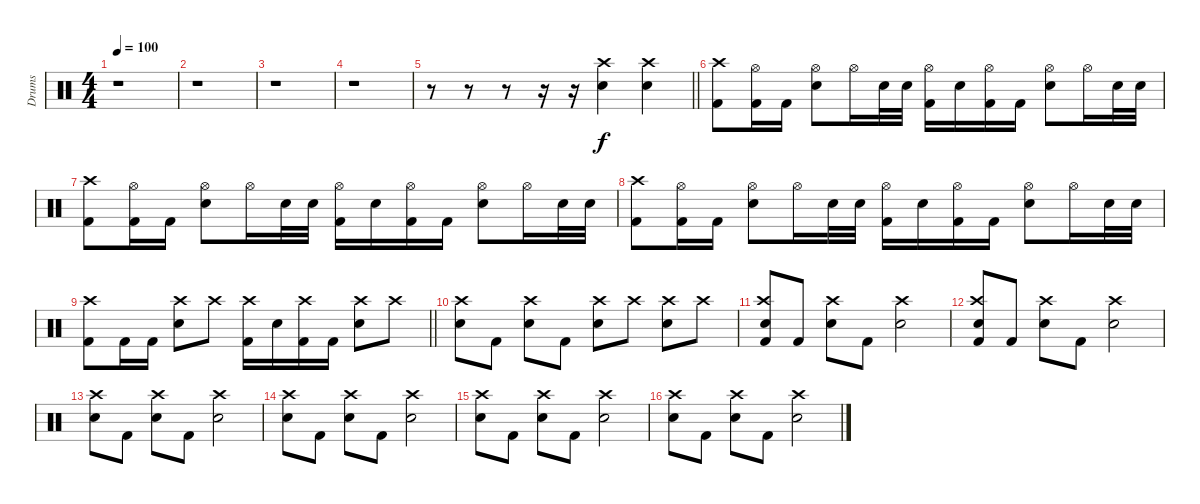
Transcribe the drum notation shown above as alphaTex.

\track ("Drums" "Drums") {instrument percussion}
\staff {score}
\articulation defaults
\ts (4 4)
\tempo 100
\clef neutral
\ks c
r.1{dy f} |
r.1 |
r.1 |
r.1 |
\barLineRight lightlight
r.8 r.8 r.8 r.16 r.16 ("Snare (hit) 2" "Crash high (hit)").4 ("Snare (hit) 2" "Crash high (hit)").4 |
("Kick (hit) 2" "Crash high (hit)").8 ("Kick (hit) 2" "Hi-Hat (open)").16 "Kick (hit) 2".16 ("Snare (hit) 2" "Hi-Hat (open)").8 "Hi-Hat (open)".16 "Snare (hit) 2".32 "Snare (hit) 2".32 ("Kick (hit) 2" "Hi-Hat (open)").16 "Snare (hit) 2".16 ("Kick (hit) 2" "Hi-Hat (open)").16 "Kick (hit) 2".16 ("Snare (hit) 2" "Hi-Hat (open)").8 "Hi-Hat (open)".16 "Snare (hit) 2".32 "Snare (hit) 2".32 |
("Kick (hit) 2" "Crash high (hit)").8 ("Kick (hit) 2" "Hi-Hat (open)").16 "Kick (hit) 2".16 ("Snare (hit) 2" "Hi-Hat (open)").8 "Hi-Hat (open)".16 "Snare (hit) 2".32 "Snare (hit) 2".32 ("Kick (hit) 2" "Hi-Hat (open)").16 "Snare (hit) 2".16 ("Kick (hit) 2" "Hi-Hat (open)").16 "Kick (hit) 2".16 ("Snare (hit) 2" "Hi-Hat (open)").8 "Hi-Hat (open)".16 "Snare (hit) 2".32 "Snare (hit) 2".32 |
("Kick (hit) 2" "Crash high (hit)").8 ("Kick (hit) 2" "Hi-Hat (open)").16 "Kick (hit) 2".16 ("Snare (hit) 2" "Hi-Hat (open)").8 "Hi-Hat (open)".16 "Snare (hit) 2".32 "Snare (hit) 2".32 ("Kick (hit) 2" "Hi-Hat (open)").16 "Snare (hit) 2".16 ("Kick (hit) 2" "Hi-Hat (open)").16 "Kick (hit) 2".16 ("Snare (hit) 2" "Hi-Hat (open)").8 "Hi-Hat (open)".16 "Snare (hit) 2".32 "Snare (hit) 2".32 |
\barLineRight lightlight
("Kick (hit) 2" "Crash high (hit)").8 "Kick (hit) 2".16 "Kick (hit) 2".16 ("Snare (hit) 2" "Crash high (hit)").8 "Crash high (hit)".8 ("Kick (hit) 2" "Crash high (hit)").16 "Snare (hit) 2".16 ("Kick (hit) 2" "Crash high (hit)").16 "Kick (hit) 2".16 ("Snare (hit) 2" "Crash high (hit)").8 "Crash high (hit)".8 |
("Snare (hit) 2" "Crash high (hit)").8 "Kick (hit) 2".8 ("Snare (hit) 2" "Crash high (hit)").8 "Kick (hit) 2".8 ("Snare (hit) 2" "Crash high (hit)").8 "Crash high (hit)".8 ("Snare (hit) 2" "Crash high (hit)").8 "Crash high (hit)".8 |
("Kick (hit) 2" "Snare (hit) 2" "Crash high (hit)").8 "Kick (hit) 2".8 ("Snare (hit) 2" "Crash high (hit)").8 "Kick (hit) 2".8 ("Snare (hit) 2" "Crash high (hit)").2 |
("Kick (hit) 2" "Snare (hit) 2" "Crash high (hit)").8 "Kick (hit) 2".8 ("Snare (hit) 2" "Crash high (hit)").8 "Kick (hit) 2".8 ("Snare (hit) 2" "Crash high (hit)").2 |
("Snare (hit) 2" "Crash high (hit)").8 "Kick (hit) 2".8 ("Snare (hit) 2" "Crash high (hit)").8 "Kick (hit) 2".8 ("Snare (hit) 2" "Crash high (hit)").2 |
("Snare (hit) 2" "Crash high (hit)").8 "Kick (hit) 2".8 ("Snare (hit) 2" "Crash high (hit)").8 "Kick (hit) 2".8 ("Snare (hit) 2" "Crash high (hit)").2 |
("Snare (hit) 2" "Crash high (hit)").8 "Kick (hit) 2".8 ("Snare (hit) 2" "Crash high (hit)").8 "Kick (hit) 2".8 ("Snare (hit) 2" "Crash high (hit)").2 |
("Snare (hit) 2" "Crash high (hit)").8 "Kick (hit) 2".8 ("Snare (hit) 2" "Crash high (hit)").8 "Kick (hit) 2".8 ("Snare (hit) 2" "Crash high (hit)").2
